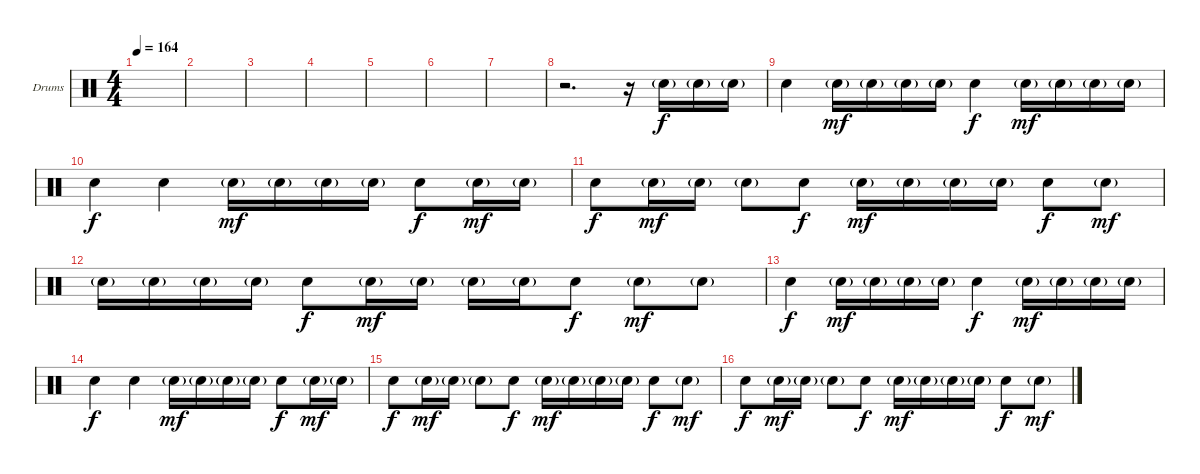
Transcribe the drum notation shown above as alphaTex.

\bracketExtendMode groupsimilarinstruments
\firstSystemTrackNameOrientation horizontal
\otherSystemsTrackNameOrientation horizontal
\track ("Drumkit" "Drums") {instrument percussion}
\staff {score}
\articulation defaults
\ts (4 4)
\beaming (8 2 2 2 2)
\tempo 164
\clef neutral
\ks c
|
|
|
|
|
|
|
r.2{d} r.16 "Snare (hit) 2"{g}.16 "Snare (hit) 2"{g}.16 "Snare (hit) 2"{g}.16 |
"Snare (hit) 2".4{dy f} "Snare (hit) 2"{g}.16{dy mf} "Snare (hit) 2"{g}.16 "Snare (hit) 2"{g}.16 "Snare (hit) 2"{g}.16 "Snare (hit) 2".4{dy f} "Snare (hit) 2"{g}.16{dy mf} "Snare (hit) 2"{g}.16 "Snare (hit) 2"{g}.16 "Snare (hit) 2"{g}.16 |
"Snare (hit) 2".4{dy f} "Snare (hit) 2".4 "Snare (hit) 2"{g}.16{dy mf} "Snare (hit) 2"{g}.16 "Snare (hit) 2"{g}.16 "Snare (hit) 2"{g}.16 "Snare (hit) 2".8{dy f} "Snare (hit) 2"{g}.16{dy mf} "Snare (hit) 2"{g}.16 |
"Snare (hit) 2".8{dy f} "Snare (hit) 2"{g}.16{dy mf} "Snare (hit) 2"{g}.16 "Snare (hit) 2"{g}.8 "Snare (hit) 2".8{dy f} "Snare (hit) 2"{g}.16{dy mf} "Snare (hit) 2"{g}.16 "Snare (hit) 2"{g}.16 "Snare (hit) 2"{g}.16 "Snare (hit) 2".8{dy f} "Snare (hit) 2"{g}.8{dy mf} |
"Snare (hit) 2"{g}.16 "Snare (hit) 2"{g}.16 "Snare (hit) 2"{g}.16 "Snare (hit) 2"{g}.16 "Snare (hit) 2".8{dy f} "Snare (hit) 2"{g}.16{dy mf} "Snare (hit) 2"{g}.16 "Snare (hit) 2"{g}.16 "Snare (hit) 2"{g}.16 "Snare (hit) 2".8{dy f} "Snare (hit) 2"{g}.8{dy mf} "Snare (hit) 2"{g}.8 |
"Snare (hit) 2".4{dy f} "Snare (hit) 2"{g}.16{dy mf} "Snare (hit) 2"{g}.16 "Snare (hit) 2"{g}.16 "Snare (hit) 2"{g}.16 "Snare (hit) 2".4{dy f} "Snare (hit) 2"{g}.16{dy mf} "Snare (hit) 2"{g}.16 "Snare (hit) 2"{g}.16 "Snare (hit) 2"{g}.16 |
"Snare (hit) 2".4{dy f} "Snare (hit) 2".4 "Snare (hit) 2"{g}.16{dy mf} "Snare (hit) 2"{g}.16 "Snare (hit) 2"{g}.16 "Snare (hit) 2"{g}.16 "Snare (hit) 2".8{dy f} "Snare (hit) 2"{g}.16{dy mf} "Snare (hit) 2"{g}.16 |
"Snare (hit) 2".8{dy f} "Snare (hit) 2"{g}.16{dy mf} "Snare (hit) 2"{g}.16 "Snare (hit) 2"{g}.8 "Snare (hit) 2".8{dy f} "Snare (hit) 2"{g}.16{dy mf} "Snare (hit) 2"{g}.16 "Snare (hit) 2"{g}.16 "Snare (hit) 2"{g}.16 "Snare (hit) 2".8{dy f} "Snare (hit) 2"{g}.8{dy mf} |
"Snare (hit) 2".8{dy f} "Snare (hit) 2"{g}.16{dy mf} "Snare (hit) 2"{g}.16 "Snare (hit) 2"{g}.8 "Snare (hit) 2".8{dy f} "Snare (hit) 2"{g}.16{dy mf} "Snare (hit) 2"{g}.16 "Snare (hit) 2"{g}.16 "Snare (hit) 2"{g}.16 "Snare (hit) 2".8{dy f} "Snare (hit) 2"{g}.8{dy mf}
